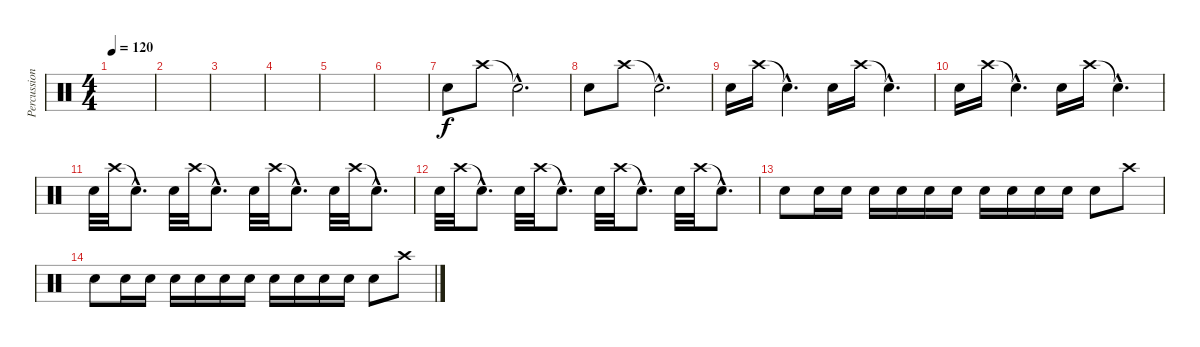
\track ("Percussion" "Percussion") {instrument percussion}
\staff {score}
\articulation defaults
\ts (4 4)
\tempo 120
\clef neutral
\ks c
|
|
|
|
|
|
"Electric Snare (hit)".8 "Crash high (hit)".8 "Snare (hit)"{hac t}.2{d} |
"Electric Snare (hit)".8 "Crash high (hit)".8 "Snare (hit)"{hac t}.2{d} |
"Electric Snare (hit)".16 "Crash high (hit)".16 "Snare (hit)"{hac t}.4{d} "Electric Snare (hit)".16 "Crash high (hit)".16 "Snare (hit)"{hac t}.4{d} |
"Electric Snare (hit)".16 "Crash high (hit)".16 "Snare (hit)"{hac t}.4{d} "Electric Snare (hit)".16 "Crash high (hit)".16 "Snare (hit)"{hac t}.4{d} |
"Electric Snare (hit)".32 "Crash high (hit)".32 "Snare (hit)"{hac t}.8{d} "Electric Snare (hit)".32 "Crash high (hit)".32 "Snare (hit)"{hac t}.8{d} "Electric Snare (hit)".32 "Crash high (hit)".32 "Snare (hit)"{hac t}.8{d} "Electric Snare (hit)".32 "Crash high (hit)".32 "Snare (hit)"{hac t}.8{d} |
"Electric Snare (hit)".32 "Crash high (hit)".32 "Snare (hit)"{hac t}.8{d} "Electric Snare (hit)".32 "Crash high (hit)".32 "Snare (hit)"{hac t}.8{d} "Electric Snare (hit)".32 "Crash high (hit)".32 "Snare (hit)"{hac t}.8{d} "Electric Snare (hit)".32 "Crash high (hit)".32 "Snare (hit)"{hac t}.8{d} |
"Electric Snare (hit)".8 "Electric Snare (hit)".16 "Electric Snare (hit)".16 "Electric Snare (hit)".16 "Electric Snare (hit)".16 "Electric Snare (hit)".16 "Electric Snare (hit)".16 "Electric Snare (hit)".16 "Electric Snare (hit)".16 "Electric Snare (hit)".16 "Electric Snare (hit)".16 "Electric Snare (hit)".8 "Crash high (hit)".8 |
"Electric Snare (hit)".8 "Electric Snare (hit)".16 "Electric Snare (hit)".16 "Electric Snare (hit)".16 "Electric Snare (hit)".16 "Electric Snare (hit)".16 "Electric Snare (hit)".16 "Electric Snare (hit)".16 "Electric Snare (hit)".16 "Electric Snare (hit)".16 "Electric Snare (hit)".16 "Electric Snare (hit)".8 "Crash high (hit)".8
